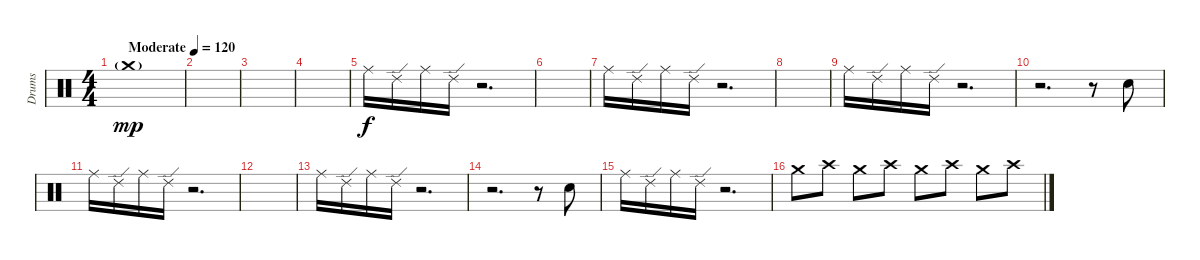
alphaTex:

\track ("Drums" "Drums") {instrument percussion}
\staff {score}
\articulation defaults
\ts (4 4)
\tempo (120 "Moderate")
\clef neutral
\ks c "Crash medium (hit)"{g}.1{dy mp}
|
|
|
|
"Ride (middle)".16{dy f} "Ride (edge) 2".16 "Ride (middle)".16 "Ride (edge) 2".16 r.2{d} |
|
"Ride (middle)".16 "Ride (edge) 2".16 "Ride (middle)".16 "Ride (edge) 2".16 r.2{d} |
|
"Ride (middle)".16 "Ride (edge) 2".16 "Ride (middle)".16 "Ride (edge) 2".16 r.2{d} |
r.2{d} r.8 "Snare (hit) 2".8 |
"Ride (middle)".16 "Ride (edge) 2".16 "Ride (middle)".16 "Ride (edge) 2".16 r.2{d} |
|
"Ride (middle)".16 "Ride (edge) 2".16 "Ride (middle)".16 "Ride (edge) 2".16 r.2{d} |
r.2{d} r.8 "Snare (hit) 2".8 |
"Ride (middle)".16 "Ride (edge) 2".16 "Ride (middle)".16 "Ride (edge) 2".16 r.2{d} |
"Crash medium (hit)".8 "Crash high (hit)".8 "Crash medium (hit)".8 "Crash high (hit)".8 "Crash medium (hit)".8 "Crash high (hit)".8 "Crash medium (hit)".8 "Crash high (hit)".8
